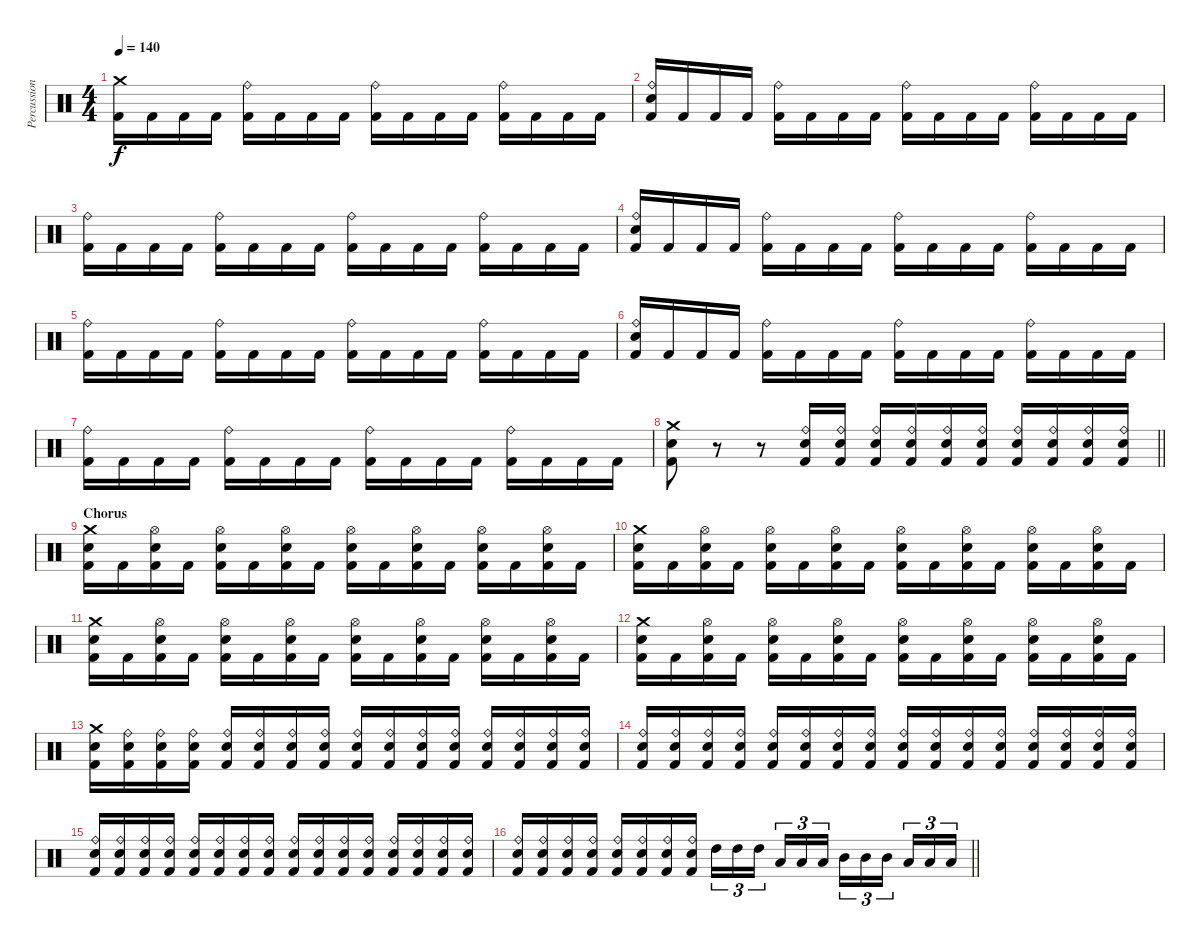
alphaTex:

\track ("Percussion" "Percussion") {instrument percussion}
\staff {score}
\articulation defaults
\ts (4 4)
\tempo 140
\clef neutral
\ks c
("Crash medium (hit)" "Kick (hit) 2").16{dy f} "Kick (hit) 2".16 "Kick (hit) 2".16 "Kick (hit) 2".16 ("Ride (bell)" "Kick (hit) 2").16 "Kick (hit) 2".16 "Kick (hit) 2".16 "Kick (hit) 2".16 ("Ride (bell)" "Kick (hit) 2").16 "Kick (hit) 2".16 "Kick (hit) 2".16 "Kick (hit) 2".16 ("Ride (bell)" "Kick (hit) 2").16 "Kick (hit) 2".16 "Kick (hit) 2".16 "Kick (hit) 2".16 |
("Ride (bell)" "Electric Snare (hit)" "Kick (hit) 2").16 "Kick (hit) 2".16 "Kick (hit) 2".16 "Kick (hit) 2".16 ("Ride (bell)" "Kick (hit) 2").16 "Kick (hit) 2".16 "Kick (hit) 2".16 "Kick (hit) 2".16 ("Ride (bell)" "Kick (hit) 2").16 "Kick (hit) 2".16 "Kick (hit) 2".16 "Kick (hit) 2".16 ("Ride (bell)" "Kick (hit) 2").16 "Kick (hit) 2".16 "Kick (hit) 2".16 "Kick (hit) 2".16 |
("Ride (bell)" "Kick (hit) 2").16 "Kick (hit) 2".16 "Kick (hit) 2".16 "Kick (hit) 2".16 ("Ride (bell)" "Kick (hit) 2").16 "Kick (hit) 2".16 "Kick (hit) 2".16 "Kick (hit) 2".16 ("Ride (bell)" "Kick (hit) 2").16 "Kick (hit) 2".16 "Kick (hit) 2".16 "Kick (hit) 2".16 ("Ride (bell)" "Kick (hit) 2").16 "Kick (hit) 2".16 "Kick (hit) 2".16 "Kick (hit) 2".16 |
("Ride (bell)" "Electric Snare (hit)" "Kick (hit) 2").16 "Kick (hit) 2".16 "Kick (hit) 2".16 "Kick (hit) 2".16 ("Ride (bell)" "Kick (hit) 2").16 "Kick (hit) 2".16 "Kick (hit) 2".16 "Kick (hit) 2".16 ("Ride (bell)" "Kick (hit) 2").16 "Kick (hit) 2".16 "Kick (hit) 2".16 "Kick (hit) 2".16 ("Ride (bell)" "Kick (hit) 2").16 "Kick (hit) 2".16 "Kick (hit) 2".16 "Kick (hit) 2".16 |
("Ride (bell)" "Kick (hit) 2").16 "Kick (hit) 2".16 "Kick (hit) 2".16 "Kick (hit) 2".16 ("Ride (bell)" "Kick (hit) 2").16 "Kick (hit) 2".16 "Kick (hit) 2".16 "Kick (hit) 2".16 ("Ride (bell)" "Kick (hit) 2").16 "Kick (hit) 2".16 "Kick (hit) 2".16 "Kick (hit) 2".16 ("Ride (bell)" "Kick (hit) 2").16 "Kick (hit) 2".16 "Kick (hit) 2".16 "Kick (hit) 2".16 |
("Ride (bell)" "Electric Snare (hit)" "Kick (hit) 2").16 "Kick (hit) 2".16 "Kick (hit) 2".16 "Kick (hit) 2".16 ("Ride (bell)" "Kick (hit) 2").16 "Kick (hit) 2".16 "Kick (hit) 2".16 "Kick (hit) 2".16 ("Ride (bell)" "Kick (hit) 2").16 "Kick (hit) 2".16 "Kick (hit) 2".16 "Kick (hit) 2".16 ("Ride (bell)" "Kick (hit) 2").16 "Kick (hit) 2".16 "Kick (hit) 2".16 "Kick (hit) 2".16 |
("Ride (bell)" "Kick (hit) 2").16 "Kick (hit) 2".16 "Kick (hit) 2".16 "Kick (hit) 2".16 ("Ride (bell)" "Kick (hit) 2").16 "Kick (hit) 2".16 "Kick (hit) 2".16 "Kick (hit) 2".16 ("Ride (bell)" "Kick (hit) 2").16 "Kick (hit) 2".16 "Kick (hit) 2".16 "Kick (hit) 2".16 ("Ride (bell)" "Kick (hit) 2").16 "Kick (hit) 2".16 "Kick (hit) 2".16 "Kick (hit) 2".16 |
\barLineRight lightlight
("Crash medium (hit)" "Electric Snare (hit)" "Kick (hit) 2").8 r.8 r.8 ("Ride (bell)" "Electric Snare (hit)" "Kick (hit) 2").16 ("Ride (bell)" "Electric Snare (hit)" "Kick (hit) 2").16 ("Ride (bell)" "Electric Snare (hit)" "Kick (hit) 2").16 ("Ride (bell)" "Electric Snare (hit)" "Kick (hit) 2").16 ("Ride (bell)" "Electric Snare (hit)" "Kick (hit) 2").16 ("Ride (bell)" "Electric Snare (hit)" "Kick (hit) 2").16 ("Ride (bell)" "Electric Snare (hit)" "Kick (hit) 2").16 ("Ride (bell)" "Electric Snare (hit)" "Kick (hit) 2").16 ("Ride (bell)" "Electric Snare (hit)" "Kick (hit) 2").16 ("Ride (bell)" "Electric Snare (hit)" "Kick (hit) 2").16 |
\section ("" "Chorus")
("Crash medium (hit)" "Electric Snare (hit)" "Kick (hit) 2").16 "Kick (hit) 2".16 ("Hi-Hat (open)" "Electric Snare (hit)" "Kick (hit) 2").16 "Kick (hit) 2".16 ("Hi-Hat (open)" "Electric Snare (hit)" "Kick (hit) 2").16 "Kick (hit) 2".16 ("Hi-Hat (open)" "Electric Snare (hit)" "Kick (hit) 2").16 "Kick (hit) 2".16 ("Hi-Hat (open)" "Electric Snare (hit)" "Kick (hit) 2").16 "Kick (hit) 2".16 ("Hi-Hat (open)" "Electric Snare (hit)" "Kick (hit) 2").16 "Kick (hit) 2".16 ("Hi-Hat (open)" "Electric Snare (hit)" "Kick (hit) 2").16 "Kick (hit) 2".16 ("Hi-Hat (open)" "Electric Snare (hit)" "Kick (hit) 2").16 "Kick (hit) 2".16 |
("Crash medium (hit)" "Electric Snare (hit)" "Kick (hit) 2").16 "Kick (hit) 2".16 ("Hi-Hat (open)" "Electric Snare (hit)" "Kick (hit) 2").16 "Kick (hit) 2".16 ("Hi-Hat (open)" "Electric Snare (hit)" "Kick (hit) 2").16 "Kick (hit) 2".16 ("Hi-Hat (open)" "Electric Snare (hit)" "Kick (hit) 2").16 "Kick (hit) 2".16 ("Hi-Hat (open)" "Electric Snare (hit)" "Kick (hit) 2").16 "Kick (hit) 2".16 ("Hi-Hat (open)" "Electric Snare (hit)" "Kick (hit) 2").16 "Kick (hit) 2".16 ("Hi-Hat (open)" "Electric Snare (hit)" "Kick (hit) 2").16 "Kick (hit) 2".16 ("Hi-Hat (open)" "Electric Snare (hit)" "Kick (hit) 2").16 "Kick (hit) 2".16 |
("Crash medium (hit)" "Electric Snare (hit)" "Kick (hit) 2").16 "Kick (hit) 2".16 ("Hi-Hat (open)" "Electric Snare (hit)" "Kick (hit) 2").16 "Kick (hit) 2".16 ("Hi-Hat (open)" "Electric Snare (hit)" "Kick (hit) 2").16 "Kick (hit) 2".16 ("Hi-Hat (open)" "Electric Snare (hit)" "Kick (hit) 2").16 "Kick (hit) 2".16 ("Hi-Hat (open)" "Electric Snare (hit)" "Kick (hit) 2").16 "Kick (hit) 2".16 ("Hi-Hat (open)" "Electric Snare (hit)" "Kick (hit) 2").16 "Kick (hit) 2".16 ("Hi-Hat (open)" "Electric Snare (hit)" "Kick (hit) 2").16 "Kick (hit) 2".16 ("Hi-Hat (open)" "Electric Snare (hit)" "Kick (hit) 2").16 "Kick (hit) 2".16 |
("Crash medium (hit)" "Electric Snare (hit)" "Kick (hit) 2").16 "Kick (hit) 2".16 ("Hi-Hat (open)" "Electric Snare (hit)" "Kick (hit) 2").16 "Kick (hit) 2".16 ("Hi-Hat (open)" "Electric Snare (hit)" "Kick (hit) 2").16 "Kick (hit) 2".16 ("Hi-Hat (open)" "Electric Snare (hit)" "Kick (hit) 2").16 "Kick (hit) 2".16 ("Hi-Hat (open)" "Electric Snare (hit)" "Kick (hit) 2").16 "Kick (hit) 2".16 ("Hi-Hat (open)" "Electric Snare (hit)" "Kick (hit) 2").16 "Kick (hit) 2".16 ("Hi-Hat (open)" "Electric Snare (hit)" "Kick (hit) 2").16 "Kick (hit) 2".16 ("Hi-Hat (open)" "Electric Snare (hit)" "Kick (hit) 2").16 "Kick (hit) 2".16 |
("Crash medium (hit)" "Electric Snare (hit)" "Kick (hit) 2").16 ("Ride (bell)" "Electric Snare (hit)" "Kick (hit) 2").16 ("Ride (bell)" "Electric Snare (hit)" "Kick (hit) 2").16 ("Ride (bell)" "Electric Snare (hit)" "Kick (hit) 2").16 ("Ride (bell)" "Electric Snare (hit)" "Kick (hit) 2").16 ("Ride (bell)" "Electric Snare (hit)" "Kick (hit) 2").16 ("Ride (bell)" "Electric Snare (hit)" "Kick (hit) 2").16 ("Ride (bell)" "Electric Snare (hit)" "Kick (hit) 2").16 ("Ride (bell)" "Electric Snare (hit)" "Kick (hit) 2").16 ("Ride (bell)" "Electric Snare (hit)" "Kick (hit) 2").16 ("Ride (bell)" "Electric Snare (hit)" "Kick (hit) 2").16 ("Ride (bell)" "Electric Snare (hit)" "Kick (hit) 2").16 ("Ride (bell)" "Electric Snare (hit)" "Kick (hit) 2").16 ("Ride (bell)" "Electric Snare (hit)" "Kick (hit) 2").16 ("Ride (bell)" "Electric Snare (hit)" "Kick (hit) 2").16 ("Ride (bell)" "Electric Snare (hit)" "Kick (hit) 2").16 |
("Ride (bell)" "Electric Snare (hit)" "Kick (hit) 2").16 ("Ride (bell)" "Electric Snare (hit)" "Kick (hit) 2").16 ("Ride (bell)" "Electric Snare (hit)" "Kick (hit) 2").16 ("Ride (bell)" "Electric Snare (hit)" "Kick (hit) 2").16 ("Ride (bell)" "Electric Snare (hit)" "Kick (hit) 2").16 ("Ride (bell)" "Electric Snare (hit)" "Kick (hit) 2").16 ("Ride (bell)" "Electric Snare (hit)" "Kick (hit) 2").16 ("Ride (bell)" "Electric Snare (hit)" "Kick (hit) 2").16 ("Ride (bell)" "Electric Snare (hit)" "Kick (hit) 2").16 ("Ride (bell)" "Electric Snare (hit)" "Kick (hit) 2").16 ("Ride (bell)" "Electric Snare (hit)" "Kick (hit) 2").16 ("Ride (bell)" "Electric Snare (hit)" "Kick (hit) 2").16 ("Ride (bell)" "Electric Snare (hit)" "Kick (hit) 2").16 ("Ride (bell)" "Electric Snare (hit)" "Kick (hit) 2").16 ("Ride (bell)" "Electric Snare (hit)" "Kick (hit) 2").16 ("Ride (bell)" "Electric Snare (hit)" "Kick (hit) 2").16 |
("Ride (bell)" "Electric Snare (hit)" "Kick (hit) 2").16 ("Ride (bell)" "Electric Snare (hit)" "Kick (hit) 2").16 ("Ride (bell)" "Electric Snare (hit)" "Kick (hit) 2").16 ("Ride (bell)" "Electric Snare (hit)" "Kick (hit) 2").16 ("Ride (bell)" "Electric Snare (hit)" "Kick (hit) 2").16 ("Ride (bell)" "Electric Snare (hit)" "Kick (hit) 2").16 ("Ride (bell)" "Electric Snare (hit)" "Kick (hit) 2").16 ("Ride (bell)" "Electric Snare (hit)" "Kick (hit) 2").16 ("Ride (bell)" "Electric Snare (hit)" "Kick (hit) 2").16 ("Ride (bell)" "Electric Snare (hit)" "Kick (hit) 2").16 ("Ride (bell)" "Electric Snare (hit)" "Kick (hit) 2").16 ("Ride (bell)" "Electric Snare (hit)" "Kick (hit) 2").16 ("Ride (bell)" "Electric Snare (hit)" "Kick (hit) 2").16 ("Ride (bell)" "Electric Snare (hit)" "Kick (hit) 2").16 ("Ride (bell)" "Electric Snare (hit)" "Kick (hit) 2").16 ("Ride (bell)" "Electric Snare (hit)" "Kick (hit) 2").16 |
\barLineRight lightlight
("Ride (bell)" "Electric Snare (hit)" "Kick (hit) 2").16 ("Ride (bell)" "Electric Snare (hit)" "Kick (hit) 2").16 ("Ride (bell)" "Electric Snare (hit)" "Kick (hit) 2").16 ("Ride (bell)" "Electric Snare (hit)" "Kick (hit) 2").16 ("Ride (bell)" "Electric Snare (hit)" "Kick (hit) 2").16 ("Ride (bell)" "Electric Snare (hit)" "Kick (hit) 2").16 ("Ride (bell)" "Electric Snare (hit)" "Kick (hit) 2").16 ("Ride (bell)" "Electric Snare (hit)" "Kick (hit) 2").16 "High Tom (hit)".16{tu (3 2)} "High Tom (hit)".16{tu (3 2)} "High Tom (hit)".16{tu (3 2) beam splitsecondary} "Low Tom (hit)".16{tu (3 2)} "Low Tom (hit)".16{tu (3 2)} "Low Tom (hit)".16{tu (3 2)} "Mid Tom (hit)".16{tu (3 2)} "Mid Tom (hit)".16{tu (3 2)} "Mid Tom (hit)".16{tu (3 2) beam splitsecondary} "Low Floor Tom (hit)".16{tu (3 2)} "Low Floor Tom (hit)".16{tu (3 2)} "Low Floor Tom (hit)".16{tu (3 2)}
